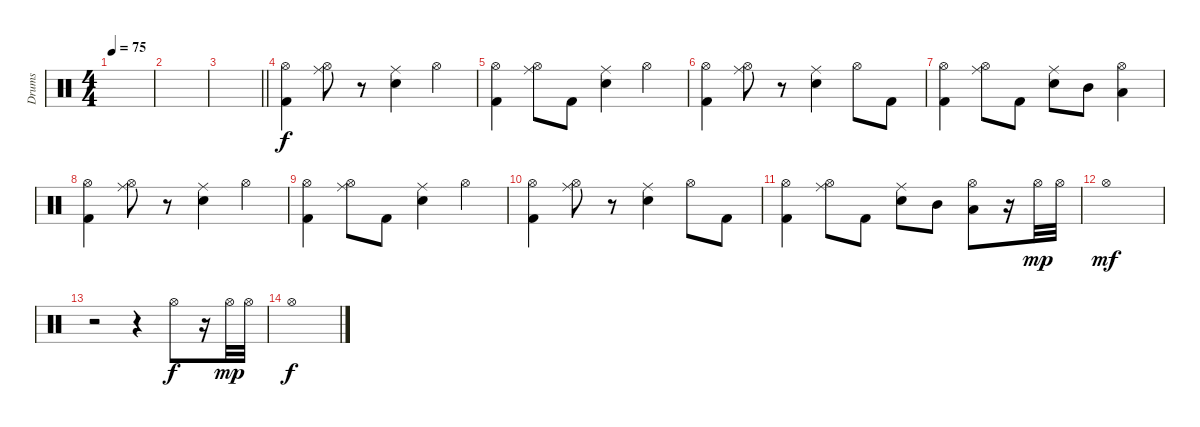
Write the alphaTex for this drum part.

\track ("Drums" "Drums") {instrument percussion}
\staff {score}
\articulation defaults
\ts (4 4)
\tempo 75
\clef neutral
\ks c
|
|
\barLineRight lightlight
|
("Kick (hit) 2" "Hi-Hat (open)").4 ("Hi-Hat (open)" "Ride (middle)").8 r.8 ("Electric Snare (hit)" "Ride (middle)").4 "Hi-Hat (open)".4 |
("Kick (hit) 2" "Hi-Hat (open)").4 ("Hi-Hat (open)" "Ride (middle)").8 "Kick (hit) 2".8 ("Electric Snare (hit)" "Ride (middle)").4 "Hi-Hat (open)".4 |
("Kick (hit) 2" "Hi-Hat (open)").4 ("Hi-Hat (open)" "Ride (middle)").8 r.8 ("Electric Snare (hit)" "Ride (middle)").4 "Hi-Hat (open)".8 "Kick (hit) 2".8 |
("Kick (hit) 2" "Hi-Hat (open)").4 ("Hi-Hat (open)" "Ride (middle)").8 "Kick (hit) 2".8 ("Electric Snare (hit)" "Ride (middle)").8 "Mid Tom (hit)".8 ("Low Tom (hit)" "Hi-Hat (open)").4 |
("Kick (hit) 2" "Hi-Hat (open)").4 ("Hi-Hat (open)" "Ride (middle)").8 r.8 ("Electric Snare (hit)" "Ride (middle)").4 "Hi-Hat (open)".4 |
("Kick (hit) 2" "Hi-Hat (open)").4 ("Hi-Hat (open)" "Ride (middle)").8 "Kick (hit) 2".8 ("Electric Snare (hit)" "Ride (middle)").4 "Hi-Hat (open)".4 |
("Kick (hit) 2" "Hi-Hat (open)").4 ("Hi-Hat (open)" "Ride (middle)").8 r.8 ("Electric Snare (hit)" "Ride (middle)").4 "Hi-Hat (open)".8 "Kick (hit) 2".8 |
("Kick (hit) 2" "Hi-Hat (open)").4 ("Hi-Hat (open)" "Ride (middle)").8 "Kick (hit) 2".8 ("Electric Snare (hit)" "Ride (middle)").8 "Mid Tom (hit)".8 ("Low Tom (hit)" "Hi-Hat (open)").8 r.16 "Hi-Hat (open)".32{dy mp} "Hi-Hat (open)".32 |
"Hi-Hat (open)".1{dy mf} |
r.2 r.4 "Hi-Hat (open)".8{dy f} r.16 "Hi-Hat (open)".32{dy mp} "Hi-Hat (open)".32 |
"Hi-Hat (open)".1{dy f}
